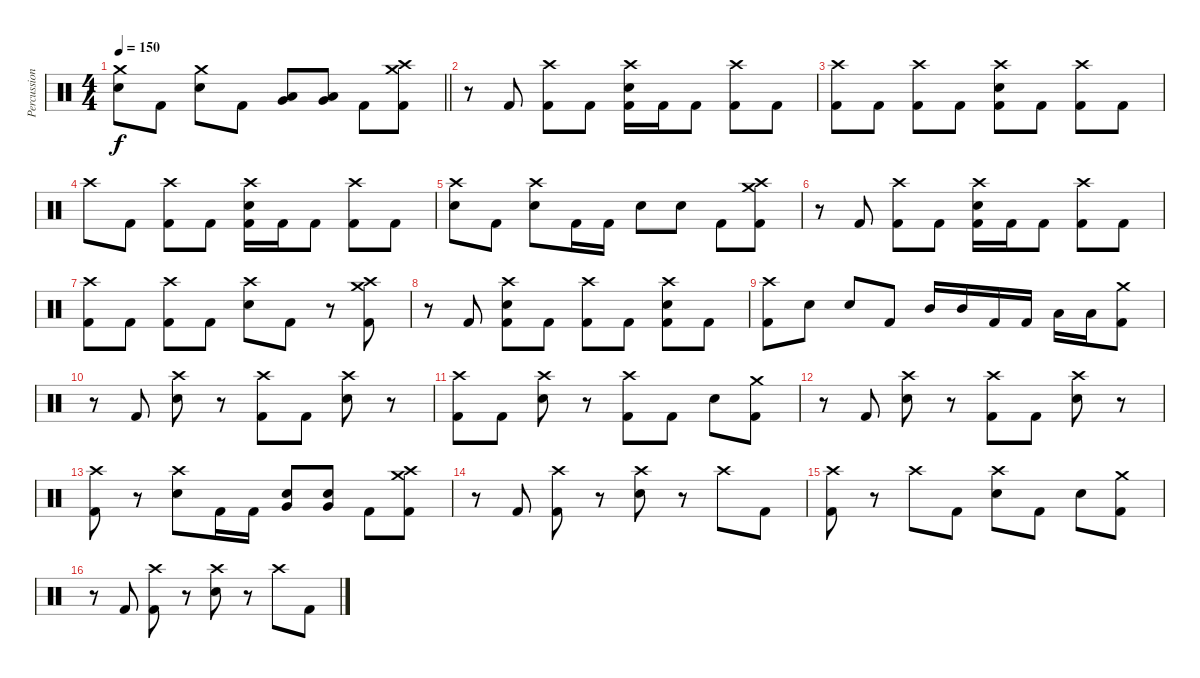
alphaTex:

\track ("Percussion" "Percussion") {instrument percussion}
\staff {score}
\articulation defaults
\ts (4 4)
\tempo 150
\clef neutral
\barLineRight lightlight
\ks c
("Crash medium (hit)" "Snare (hit) 2").8{dy f} "Kick (hit) 2".8 ("Crash medium (hit)" "Snare (hit) 2").8 "Kick (hit) 2".8 ("Low Tom (hit)" "Very Low Tom (hit)").8 ("Low Tom (hit)" "Very Low Tom (hit)").8 "Kick (hit) 2".8 ("Crash high (hit)" "Crash medium (hit)" "Kick (hit) 2").8 |
\section ("" "")
r.8 "Kick (hit) 2".8 ("Crash high (hit)" "Kick (hit) 2").8 "Kick (hit) 2".8 ("Crash high (hit)" "Snare (hit) 2" "Kick (hit) 2").16 "Kick (hit) 2".16 "Kick (hit) 2".8 ("Crash high (hit)" "Kick (hit) 2").8 "Kick (hit) 2".8 |
("Crash high (hit)" "Kick (hit) 2").8 "Kick (hit) 2".8 ("Crash high (hit)" "Kick (hit) 2").8 "Kick (hit) 2".8 ("Crash high (hit)" "Snare (hit) 2" "Kick (hit) 2").8 "Kick (hit) 2".8 ("Crash high (hit)" "Kick (hit) 2").8 "Kick (hit) 2".8 |
"Crash high (hit)".8 "Kick (hit) 2".8 ("Crash high (hit)" "Kick (hit) 2").8 "Kick (hit) 2".8 ("Crash high (hit)" "Snare (hit) 2" "Kick (hit) 2").16 "Kick (hit) 2".16 "Kick (hit) 2".8 ("Crash high (hit)" "Kick (hit) 2").8 "Kick (hit) 2".8 |
("Crash high (hit)" "Snare (hit) 2").8 "Kick (hit) 2".8 ("Crash high (hit)" "Snare (hit) 2").8 "Kick (hit) 2".16 "Kick (hit) 2".16 "Snare (hit) 2".8 "Snare (hit) 2".8 "Kick (hit) 2".8 ("Crash high (hit)" "Crash medium (hit)" "Kick (hit) 2").8 |
r.8 "Kick (hit) 2".8 ("Crash high (hit)" "Kick (hit) 2").8 "Kick (hit) 2".8 ("Crash high (hit)" "Snare (hit) 2" "Kick (hit) 2").16 "Kick (hit) 2".16 "Kick (hit) 2".8 ("Crash high (hit)" "Kick (hit) 2").8 "Kick (hit) 2".8 |
("Crash high (hit)" "Kick (hit) 2").8 "Kick (hit) 2".8 ("Crash high (hit)" "Kick (hit) 2").8 "Kick (hit) 2".8 ("Crash high (hit)" "Snare (hit) 2").8 "Kick (hit) 2".8 r.8 ("Crash high (hit)" "Crash medium (hit)" "Kick (hit) 2").8 |
r.8 "Kick (hit) 2".8 ("Crash high (hit)" "Snare (hit) 2" "Kick (hit) 2").8 "Kick (hit) 2".8 ("Crash high (hit)" "Kick (hit) 2").8 "Kick (hit) 2".8 ("Crash high (hit)" "Snare (hit) 2" "Kick (hit) 2").8 "Kick (hit) 2".8 |
("Crash high (hit)" "Kick (hit) 2").8 "Snare (hit) 2".8 "Snare (hit) 2".8 "Kick (hit) 2".8 "Mid Tom (hit)".16 "Mid Tom (hit)".16 "Kick (hit) 2".16 "Kick (hit) 2".16 "Low Tom (hit)".16 "Low Tom (hit)".16 ("Crash medium (hit)" "Kick (hit) 2").8 |
r.8 "Kick (hit) 2".8 ("Crash high (hit)" "Snare (hit) 2").8 r.8 ("Crash high (hit)" "Kick (hit) 2").8 "Kick (hit) 2".8 ("Crash high (hit)" "Snare (hit) 2").8 r.8 |
("Crash high (hit)" "Kick (hit) 2").8 "Kick (hit) 2".8 ("Crash high (hit)" "Snare (hit) 2").8 r.8 ("Crash high (hit)" "Kick (hit) 2").8 "Kick (hit) 2".8 "Snare (hit) 2".8 ("Crash medium (hit)" "Kick (hit) 2").8 |
r.8 "Kick (hit) 2".8 ("Crash high (hit)" "Snare (hit) 2").8 r.8 ("Crash high (hit)" "Kick (hit) 2").8 "Kick (hit) 2".8 ("Crash high (hit)" "Snare (hit) 2").8 r.8 |
("Crash high (hit)" "Kick (hit) 2").8 r.8 ("Crash high (hit)" "Snare (hit) 2").8 "Kick (hit) 2".16 "Kick (hit) 2".16 ("Snare (hit) 2" "Very Low Tom (hit)").8 ("Snare (hit) 2" "Very Low Tom (hit)").8 "Kick (hit) 2".8 ("Crash high (hit)" "Crash medium (hit)" "Kick (hit) 2").8 |
r.8 "Kick (hit) 2".8 ("Crash high (hit)" "Kick (hit) 2").8 r.8 ("Crash high (hit)" "Snare (hit) 2").8 r.8 "Crash high (hit)".8 "Kick (hit) 2".8 |
("Crash high (hit)" "Kick (hit) 2").8 r.8 "Crash high (hit)".8 "Kick (hit) 2".8 ("Crash high (hit)" "Snare (hit) 2").8 "Kick (hit) 2".8 "Snare (hit) 2".8 ("Crash medium (hit)" "Kick (hit) 2").8 |
r.8 "Kick (hit) 2".8 ("Crash high (hit)" "Kick (hit) 2").8 r.8 ("Crash high (hit)" "Snare (hit) 2").8 r.8 "Crash high (hit)".8 "Kick (hit) 2".8
